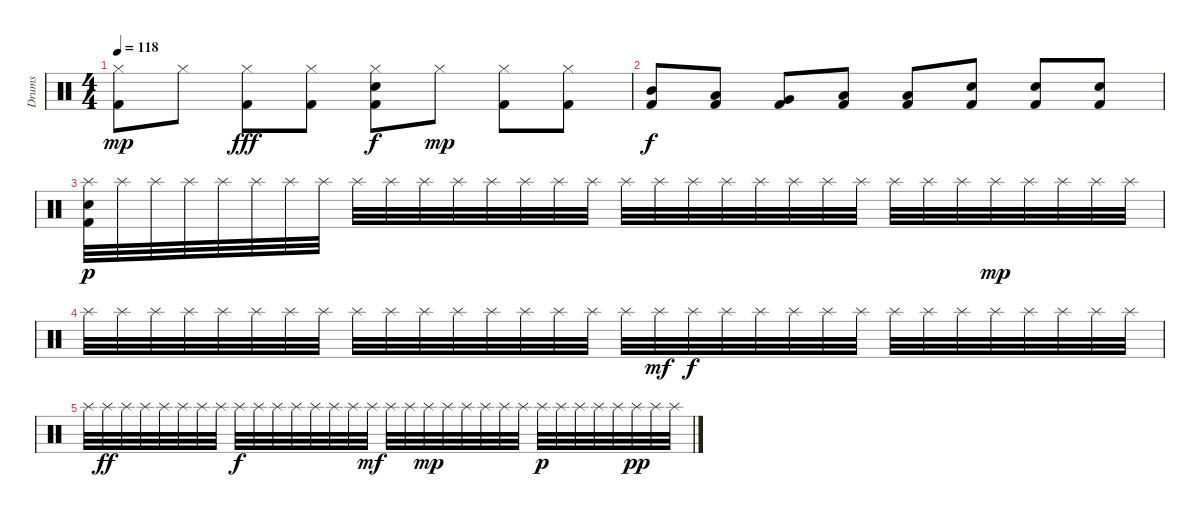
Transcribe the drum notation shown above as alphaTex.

\track ("Drums" "Drums") {instrument percussion}
\staff {score}
\articulation defaults
\ts (4 4)
\tempo 118
\clef neutral
\ks c
("Hi-Hat (closed)" "Kick (hit) 2").8{dy mp} "Hi-Hat (closed)".8 ("Hi-Hat (closed)" "Kick (hit) 2").8{dy fff} ("Hi-Hat (closed)" "Kick (hit) 2").8 ("Hi-Hat (closed)" "Snare (hit) 2" "Kick (hit) 2").8{dy f} "Hi-Hat (closed)".8{dy mp} ("Hi-Hat (closed)" "Kick (hit) 2").8 ("Hi-Hat (closed)" "Kick (hit) 2").8 |
("Mid Tom (hit)" "Kick (hit) 2").8{dy f} ("Low Tom (hit)" "Kick (hit) 2").8 ("Very Low Tom (hit)" "Kick (hit) 2").8 ("Low Floor Tom (hit)" "Kick (hit) 2").8 ("Low Tom (hit)" "Kick (hit) 2").8 ("Snare (hit) 2" "Kick (hit) 2").8 ("Snare (hit) 2" "Kick (hit) 2").8 ("Snare (hit) 2" "Kick (hit) 2").8 |
("Splash (hit)" "Snare (hit) 2" "Kick (hit) 2").32{dy p} "Splash (hit)".32 "Splash (hit)".32 "Splash (hit)".32 "Splash (hit)".32 "Splash (hit)".32 "Splash (hit)".32 "Splash (hit)".32 "Splash (hit)".32 "Splash (hit)".32 "Splash (hit)".32 "Splash (hit)".32 "Splash (hit)".32 "Splash (hit)".32 "Splash (hit)".32 "Splash (hit)".32 "Splash (hit)".32 "Splash (hit)".32 "Splash (hit)".32 "Splash (hit)".32 "Splash (hit)".32 "Splash (hit)".32 "Splash (hit)".32 "Splash (hit)".32 "Splash (hit)".32 "Splash (hit)".32 "Splash (hit)".32 "Splash (hit)".32{dy mp} "Splash (hit)".32 "Splash (hit)".32 "Splash (hit)".32 "Splash (hit)".32 |
"Splash (hit)".32 "Splash (hit)".32 "Splash (hit)".32 "Splash (hit)".32 "Splash (hit)".32 "Splash (hit)".32 "Splash (hit)".32 "Splash (hit)".32 "Splash (hit)".32 "Splash (hit)".32 "Splash (hit)".32 "Splash (hit)".32 "Splash (hit)".32 "Splash (hit)".32 "Splash (hit)".32 "Splash (hit)".32 "Splash (hit)".32 "Splash (hit)".32{dy mf} "Splash (hit)".32{dy f} "Splash (hit)".32 "Splash (hit)".32 "Splash (hit)".32 "Splash (hit)".32 "Splash (hit)".32 "Splash (hit)".32 "Splash (hit)".32 "Splash (hit)".32 "Splash (hit)".32 "Splash (hit)".32 "Splash (hit)".32 "Splash (hit)".32 "Splash (hit)".32 |
"Splash (hit)".32 "Splash (hit)".32{dy ff} "Splash (hit)".32 "Splash (hit)".32 "Splash (hit)".32 "Splash (hit)".32 "Splash (hit)".32 "Splash (hit)".32 "Splash (hit)".32{dy f} "Splash (hit)".32 "Splash (hit)".32 "Splash (hit)".32 "Splash (hit)".32 "Splash (hit)".32 "Splash (hit)".32 "Splash (hit)".32{dy mf} "Splash (hit)".32 "Splash (hit)".32 "Splash (hit)".32{dy mp} "Splash (hit)".32 "Splash (hit)".32 "Splash (hit)".32 "Splash (hit)".32 "Splash (hit)".32 "Splash (hit)".32{dy p} "Splash (hit)".32 "Splash (hit)".32 "Splash (hit)".32 "Splash (hit)".32 "Splash (hit)".32{dy pp} "Splash (hit)".32 "Splash (hit)".32
